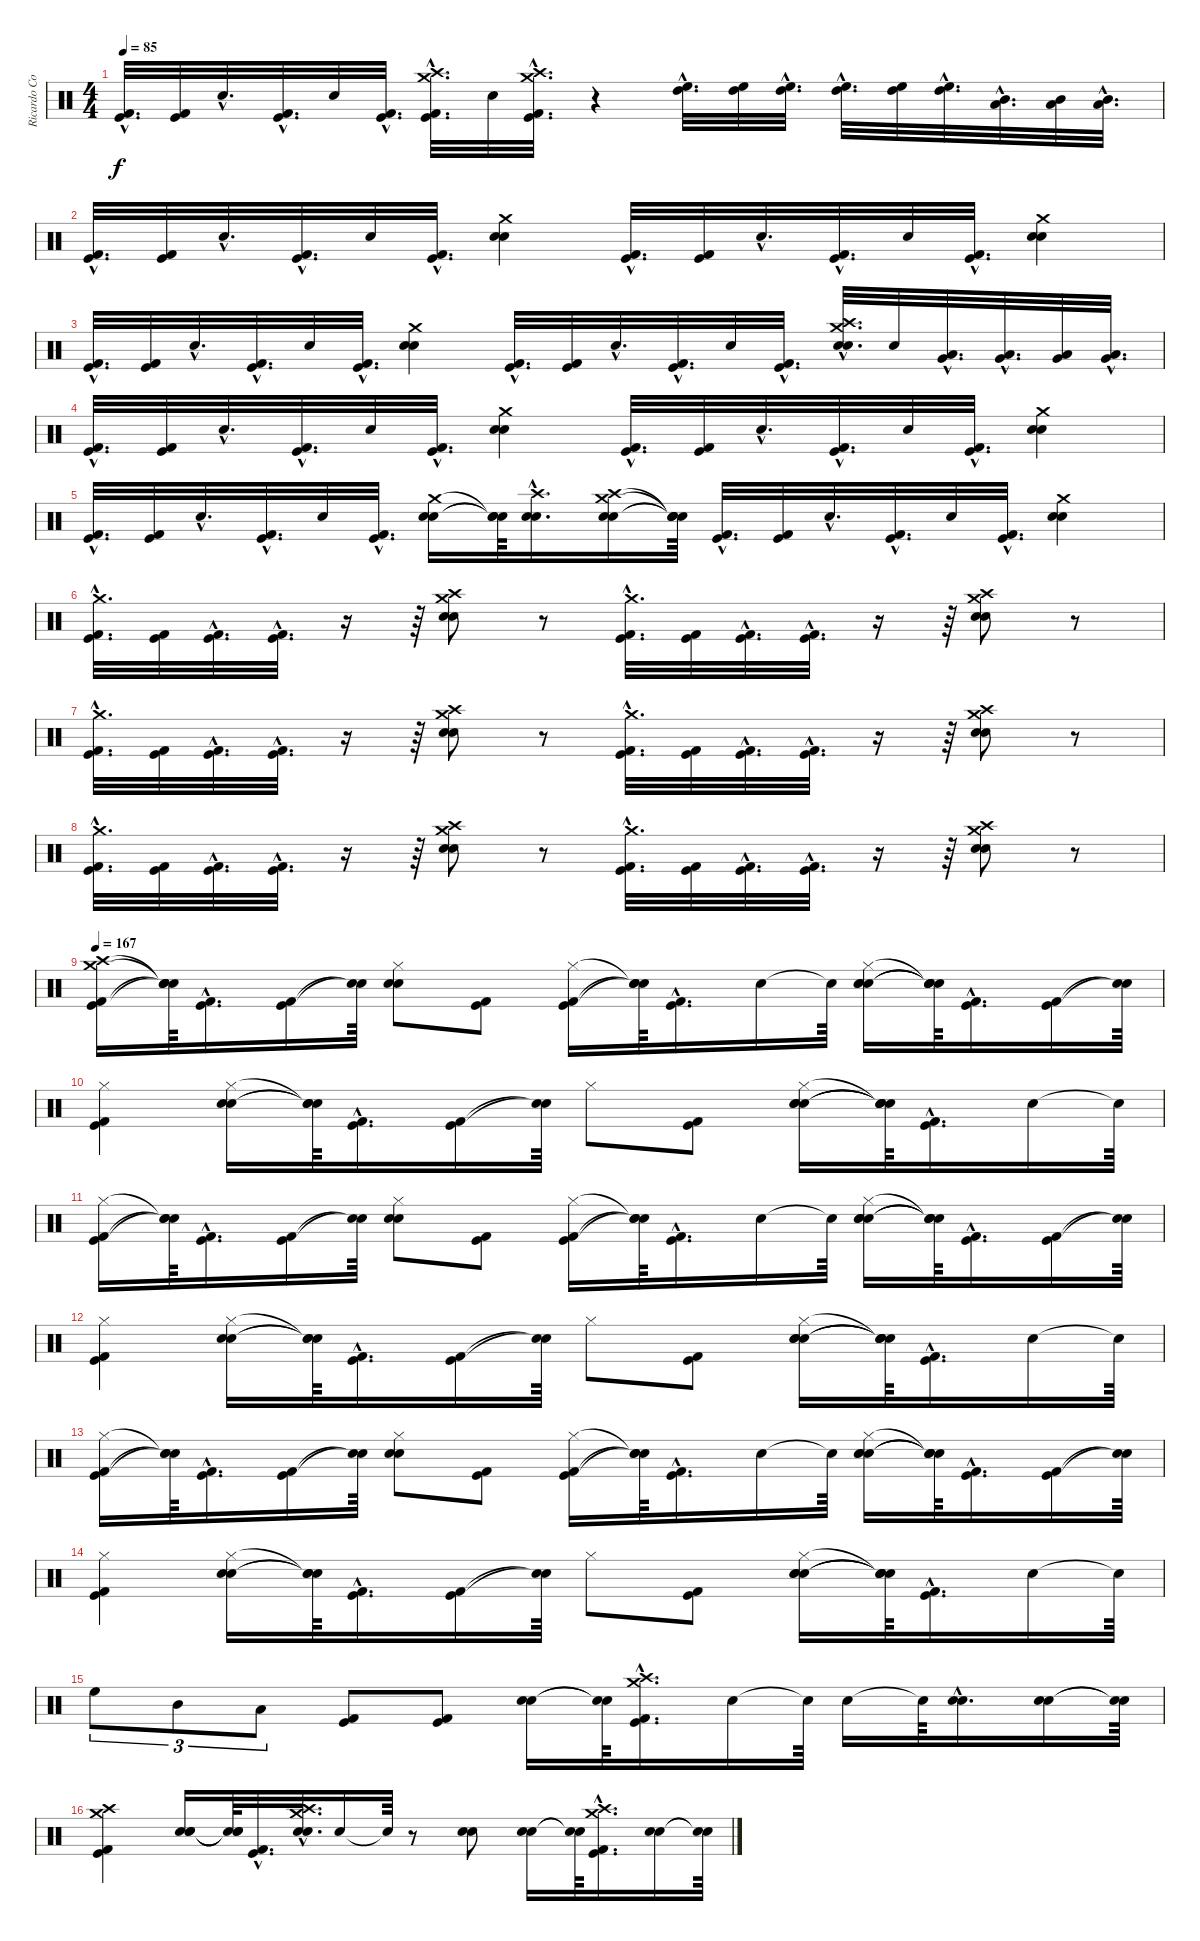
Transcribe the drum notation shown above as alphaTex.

\track ("Ricardo Confessori" "Ricardo Co") {instrument percussion}
\staff {score}
\articulation defaults
\ts (4 4)
\tempo 85
\clef neutral
\ks c
("Kick (hit) 2"{hac} "Kick (hit)"{hac}).32{d dy f} ("Kick (hit) 2" "Kick (hit)").32 "Snare (hit)"{hac}.32{d} ("Kick (hit) 2"{hac} "Kick (hit)"{hac}).32{d} "Snare (hit)".32 ("Kick (hit) 2"{hac} "Kick (hit)"{hac}).32{d} ("Crash high (hit)"{hac} "Crash medium (hit)"{hac} "Kick (hit) 2"{hac} "Kick (hit)"{hac}).32{d} "Snare (hit)".32 ("Crash high (hit)"{hac} "Crash medium (hit)"{hac} "Kick (hit) 2"{hac} "Kick (hit)"{hac}).32{d} r.4 ("High Tom (hit)"{hac} "High Floor Tom (hit)"{hac}).32{d} ("High Tom (hit)" "High Floor Tom (hit)").32 ("High Tom (hit)"{hac} "High Floor Tom (hit)"{hac}).32{d} ("High Floor Tom (hit)"{hac} "High Tom (hit)"{hac}).32{d} ("High Tom (hit)" "High Floor Tom (hit)").32 ("High Tom (hit)"{hac} "High Floor Tom (hit)"{hac}).32{d} ("Mid Tom (hit)"{hac} "Low Tom (hit)"{hac}).32{d} ("Mid Tom (hit)" "Low Tom (hit)").32 ("Mid Tom (hit)"{hac} "Low Tom (hit)"{hac}).32{d} |
("Kick (hit) 2"{hac} "Kick (hit)"{hac}).32{d} ("Kick (hit) 2" "Kick (hit)").32 "Snare (hit)"{hac}.32{d} ("Kick (hit) 2"{hac} "Kick (hit)"{hac}).32{d} "Snare (hit)".32 ("Kick (hit) 2"{hac} "Kick (hit)"{hac}).32{d} ("Crash medium (hit)" "Electric Snare (hit)" "Snare (hit) 2").4 ("Kick (hit) 2"{hac} "Kick (hit)"{hac}).32{d} ("Kick (hit) 2" "Kick (hit)").32 "Snare (hit)"{hac}.32{d} ("Kick (hit) 2"{hac} "Kick (hit)"{hac}).32{d} "Snare (hit)".32 ("Kick (hit) 2"{hac} "Kick (hit)"{hac}).32{d} ("Crash medium (hit)" "Electric Snare (hit)" "Snare (hit) 2").4 |
("Kick (hit) 2"{hac} "Kick (hit)"{hac}).32{d} ("Kick (hit) 2" "Kick (hit)").32 "Snare (hit)"{hac}.32{d} ("Kick (hit) 2"{hac} "Kick (hit)"{hac}).32{d} "Snare (hit)".32 ("Kick (hit) 2"{hac} "Kick (hit)"{hac}).32{d} ("Crash medium (hit)" "Electric Snare (hit)" "Snare (hit) 2").4 ("Kick (hit) 2"{hac} "Kick (hit)"{hac}).32{d} ("Kick (hit) 2" "Kick (hit)").32 "Snare (hit)"{hac}.32{d} ("Kick (hit) 2"{hac} "Kick (hit)"{hac}).32{d} "Snare (hit)".32 ("Kick (hit) 2"{hac} "Kick (hit)"{hac}).32{d} ("Crash high (hit)"{hac} "Crash medium (hit)"{hac} "Electric Snare (hit)"{hac} "Snare (hit) 2"{hac}).32{d} "Snare (hit)".32 ("Very Low Tom (hit)"{hac} "Low Floor Tom (hit)"{hac}).32{d} ("Very Low Tom (hit)"{hac} "Low Floor Tom (hit)"{hac}).32{d} ("Very Low Tom (hit)" "Low Floor Tom (hit)").32 ("Very Low Tom (hit)"{hac} "Low Floor Tom (hit)"{hac}).32{d} |
("Kick (hit) 2"{hac} "Kick (hit)"{hac}).32{d} ("Kick (hit) 2" "Kick (hit)").32 "Snare (hit)"{hac}.32{d} ("Kick (hit) 2"{hac} "Kick (hit)"{hac}).32{d} "Snare (hit)".32 ("Kick (hit) 2"{hac} "Kick (hit)"{hac}).32{d} ("Crash medium (hit)" "Electric Snare (hit)" "Snare (hit) 2").4 ("Kick (hit) 2"{hac} "Kick (hit)"{hac}).32{d} ("Kick (hit) 2" "Kick (hit)").32 "Snare (hit)"{hac}.32{d} ("Kick (hit) 2"{hac} "Kick (hit)"{hac}).32{d} "Snare (hit)".32 ("Kick (hit) 2"{hac} "Kick (hit)"{hac}).32{d} ("Crash medium (hit)" "Electric Snare (hit)" "Snare (hit) 2").4 |
("Kick (hit) 2"{hac} "Kick (hit)"{hac}).32{d} ("Kick (hit) 2" "Kick (hit)").32 "Snare (hit)"{hac}.32{d} ("Kick (hit) 2"{hac} "Kick (hit)"{hac}).32{d} "Snare (hit)".32 ("Kick (hit) 2"{hac} "Kick (hit)"{hac}).32{d} ("Crash medium (hit)" "Electric Snare (hit)" "Snare (hit) 2").16 ("Snare (hit)"{t} "Snare (hit)"{t} "Snare (hit)"{t}).64 ("Crash high (hit)"{hac} "Electric Snare (hit)"{hac} "Snare (hit) 2"{hac}).16{d} ("Crash high (hit)" "Crash medium (hit)" "Electric Snare (hit)" "Snare (hit) 2").16 ("Snare (hit)"{t} "Snare (hit)"{t} "Snare (hit)"{t} "Snare (hit)"{t}).64 ("Kick (hit) 2"{hac} "Kick (hit)"{hac}).32{d} ("Kick (hit) 2" "Kick (hit)").32 "Snare (hit)"{hac}.32{d} ("Kick (hit) 2"{hac} "Kick (hit)"{hac}).32{d} "Snare (hit)".32 ("Kick (hit) 2"{hac} "Kick (hit)"{hac}).32{d} ("Crash medium (hit)" "Electric Snare (hit)" "Snare (hit) 2").4 |
("Crash medium (hit)"{hac} "Kick (hit) 2"{hac} "Kick (hit)"{hac}).32{d} ("Kick (hit) 2" "Kick (hit)").32 ("Kick (hit) 2"{hac} "Kick (hit)"{hac}).32{d} ("Kick (hit) 2"{hac} "Kick (hit)"{hac}).32{d} r.16 r.64 ("Crash high (hit)" "Crash medium (hit)" "Electric Snare (hit)" "Snare (hit) 2").8 r.8 ("Crash medium (hit)"{hac} "Kick (hit) 2"{hac} "Kick (hit)"{hac}).32{d} ("Kick (hit) 2" "Kick (hit)").32 ("Kick (hit) 2"{hac} "Kick (hit)"{hac}).32{d} ("Kick (hit) 2"{hac} "Kick (hit)"{hac}).32{d} r.16 r.64 ("Crash medium (hit)" "Crash high (hit)" "Electric Snare (hit)" "Snare (hit) 2").8 r.8 |
("Crash medium (hit)"{hac} "Kick (hit) 2"{hac} "Kick (hit)"{hac}).32{d} ("Kick (hit) 2" "Kick (hit)").32 ("Kick (hit) 2"{hac} "Kick (hit)"{hac}).32{d} ("Kick (hit) 2"{hac} "Kick (hit)"{hac}).32{d} r.16 r.64 ("Crash high (hit)" "Crash medium (hit)" "Electric Snare (hit)" "Snare (hit) 2").8 r.8 ("Crash medium (hit)"{hac} "Kick (hit) 2"{hac} "Kick (hit)"{hac}).32{d} ("Kick (hit) 2" "Kick (hit)").32 ("Kick (hit) 2"{hac} "Kick (hit)"{hac}).32{d} ("Kick (hit) 2"{hac} "Kick (hit)"{hac}).32{d} r.16 r.64 ("Crash medium (hit)" "Crash high (hit)" "Electric Snare (hit)" "Snare (hit) 2").8 r.8 |
("Crash medium (hit)"{hac} "Kick (hit) 2"{hac} "Kick (hit)"{hac}).32{d} ("Kick (hit) 2" "Kick (hit)").32 ("Kick (hit) 2"{hac} "Kick (hit)"{hac}).32{d} ("Kick (hit) 2"{hac} "Kick (hit)"{hac}).32{d} r.16 r.64 ("Crash high (hit)" "Crash medium (hit)" "Electric Snare (hit)" "Snare (hit) 2").8 r.8 ("Crash medium (hit)"{hac} "Kick (hit) 2"{hac} "Kick (hit)"{hac}).32{d} ("Kick (hit) 2" "Kick (hit)").32 ("Kick (hit) 2"{hac} "Kick (hit)"{hac}).32{d} ("Kick (hit) 2"{hac} "Kick (hit)"{hac}).32{d} r.16 r.64 ("Crash medium (hit)" "Crash high (hit)" "Electric Snare (hit)" "Snare (hit) 2").8 r.8 |
\tempo 167
("Crash high (hit)" "Crash medium (hit)" "Kick (hit) 2" "Kick (hit)").16 ("Snare (hit)"{t} "Snare (hit)"{t} "Snare (hit)"{t} "Snare (hit)"{t}).64 ("Kick (hit) 2"{hac} "Kick (hit)"{hac}).16{d} ("Kick (hit) 2" "Kick (hit)").16 ("Snare (hit)"{t} "Snare (hit)"{t}).64 ("Hi-Hat (closed)" "Electric Snare (hit)" "Snare (hit) 2").8 ("Kick (hit) 2" "Kick (hit)").8 ("Hi-Hat (closed)" "Kick (hit) 2" "Kick (hit)").16 ("Snare (hit)"{t} "Snare (hit)"{t} "Snare (hit)"{t}).64 ("Kick (hit) 2"{hac} "Kick (hit)"{hac}).16{d} "Snare (hit)".16 "Snare (hit)"{t}.64 ("Electric Snare (hit)" "Snare (hit) 2" "Hi-Hat (closed)" "Snare (hit)").16 ("Snare (hit)"{t} "Snare (hit)"{t} "Snare (hit)"{t} "Snare (hit)"{t}).64 ("Kick (hit) 2"{hac} "Kick (hit)"{hac}).16{d} ("Kick (hit) 2" "Kick (hit)").16 ("Snare (hit)"{t} "Snare (hit)"{t}).64 |
("Hi-Hat (closed)" "Kick (hit) 2" "Kick (hit)").4 ("Hi-Hat (closed)" "Snare (hit) 2" "Electric Snare (hit)").16 ("Snare (hit)"{t} "Snare (hit)"{t} "Snare (hit)"{t}).64 ("Kick (hit) 2"{hac} "Kick (hit)"{hac}).16{d} ("Kick (hit) 2" "Kick (hit)").16 ("Snare (hit)"{t} "Snare (hit)"{t}).64 "Hi-Hat (closed)".8 ("Kick (hit) 2" "Kick (hit)").8 ("Hi-Hat (closed)" "Electric Snare (hit)" "Snare (hit) 2" "Snare (hit)").16 ("Snare (hit)"{t} "Snare (hit)"{t} "Snare (hit)"{t} "Snare (hit)"{t}).64 ("Kick (hit) 2"{hac} "Kick (hit)"{hac}).16{d} "Snare (hit)".16 "Snare (hit)"{t}.64 |
("Hi-Hat (closed)" "Kick (hit) 2" "Kick (hit)").16 ("Snare (hit)"{t} "Snare (hit)"{t} "Snare (hit)"{t}).64 ("Kick (hit) 2"{hac} "Kick (hit)"{hac}).16{d} ("Kick (hit) 2" "Kick (hit)").16 ("Snare (hit)"{t} "Snare (hit)"{t}).64 ("Electric Snare (hit)" "Snare (hit) 2" "Hi-Hat (closed)").8 ("Kick (hit) 2" "Kick (hit)").8 ("Hi-Hat (closed)" "Kick (hit) 2" "Kick (hit)").16 ("Snare (hit)"{t} "Snare (hit)"{t} "Snare (hit)"{t}).64 ("Kick (hit) 2"{hac} "Kick (hit)"{hac}).16{d} "Snare (hit)".16 "Snare (hit)"{t}.64 ("Electric Snare (hit)" "Snare (hit) 2" "Hi-Hat (closed)" "Snare (hit)").16 ("Snare (hit)"{t} "Snare (hit)"{t} "Snare (hit)"{t} "Snare (hit)"{t}).64 ("Kick (hit) 2"{hac} "Kick (hit)"{hac}).16{d} ("Kick (hit) 2" "Kick (hit)").16 ("Snare (hit)"{t} "Snare (hit)"{t}).64 |
("Hi-Hat (closed)" "Kick (hit) 2" "Kick (hit)").4 ("Electric Snare (hit)" "Snare (hit) 2" "Hi-Hat (closed)").16 ("Snare (hit)"{t} "Snare (hit)"{t} "Snare (hit)"{t}).64 ("Kick (hit) 2"{hac} "Kick (hit)"{hac}).16{d} ("Kick (hit) 2" "Kick (hit)").16 ("Snare (hit)"{t} "Snare (hit)"{t}).64 "Hi-Hat (closed)".8 ("Kick (hit) 2" "Kick (hit)").8 ("Electric Snare (hit)" "Snare (hit) 2" "Hi-Hat (closed)" "Snare (hit)").16 ("Snare (hit)"{t} "Snare (hit)"{t} "Snare (hit)"{t} "Snare (hit)"{t}).64 ("Kick (hit) 2"{hac} "Kick (hit)"{hac}).16{d} "Snare (hit)".16 "Snare (hit)"{t}.64 |
("Hi-Hat (closed)" "Kick (hit) 2" "Kick (hit)").16 ("Snare (hit)"{t} "Snare (hit)"{t} "Snare (hit)"{t}).64 ("Kick (hit) 2"{hac} "Kick (hit)"{hac}).16{d} ("Kick (hit) 2" "Kick (hit)").16 ("Snare (hit)"{t} "Snare (hit)"{t}).64 ("Electric Snare (hit)" "Snare (hit) 2" "Hi-Hat (closed)").8 ("Kick (hit) 2" "Kick (hit)").8 ("Hi-Hat (closed)" "Kick (hit) 2" "Kick (hit)").16 ("Snare (hit)"{t} "Snare (hit)"{t} "Snare (hit)"{t}).64 ("Kick (hit) 2"{hac} "Kick (hit)"{hac}).16{d} "Snare (hit)".16 "Snare (hit)"{t}.64 ("Electric Snare (hit)" "Snare (hit) 2" "Hi-Hat (closed)" "Snare (hit)").16 ("Snare (hit)"{t} "Snare (hit)"{t} "Snare (hit)"{t} "Snare (hit)"{t}).64 ("Kick (hit) 2"{hac} "Kick (hit)"{hac}).16{d} ("Kick (hit) 2" "Kick (hit)").16 ("Snare (hit)"{t} "Snare (hit)"{t}).64 |
("Hi-Hat (closed)" "Kick (hit) 2" "Kick (hit)").4 ("Electric Snare (hit)" "Snare (hit) 2" "Hi-Hat (closed)").16 ("Snare (hit)"{t} "Snare (hit)"{t} "Snare (hit)"{t}).64 ("Kick (hit) 2"{hac} "Kick (hit)"{hac}).16{d} ("Kick (hit) 2" "Kick (hit)").16 ("Snare (hit)"{t} "Snare (hit)"{t}).64 "Hi-Hat (closed)".8 ("Kick (hit) 2" "Kick (hit)").8 ("Electric Snare (hit)" "Snare (hit) 2" "Hi-Hat (closed)" "Snare (hit)").16 ("Snare (hit)"{t} "Snare (hit)"{t} "Snare (hit)"{t} "Snare (hit)"{t}).64 ("Kick (hit) 2"{hac} "Kick (hit)"{hac}).16{d} "Snare (hit)".16 "Snare (hit)"{t}.64 |
"High Floor Tom (hit)".8{tu (3 2)} "Mid Tom (hit)".8{tu (3 2)} "Low Tom (hit)".8{tu (3 2)} ("Kick (hit) 2" "Kick (hit)").8 ("Kick (hit) 2" "Kick (hit)").8 ("Electric Snare (hit)" "Snare (hit) 2").16 ("Snare (hit)"{t} "Snare (hit)"{t}).64 ("Crash high (hit)"{hac} "Crash medium (hit)"{hac} "Kick (hit) 2"{hac} "Kick (hit)"{hac}).16{d} "Snare (hit)".16 "Snare (hit)"{t}.64 "Snare (hit)".16 "Snare (hit)"{t}.64 ("Electric Snare (hit)"{hac} "Snare (hit) 2"{hac}).16{d} ("Electric Snare (hit)" "Snare (hit) 2").16 ("Snare (hit)"{t} "Snare (hit)"{t}).64 |
("Crash medium (hit)" "Crash high (hit)" "Kick (hit) 2" "Kick (hit)").4 ("Snare (hit)" "Electric Snare (hit)" "Snare (hit) 2").16 ("Snare (hit)"{t} "Snare (hit)"{t} "Snare (hit)"{t}).64 ("Kick (hit) 2"{hac} "Kick (hit)"{hac}).32{d} ("Crash high (hit)"{hac} "Crash medium (hit)"{hac} "Electric Snare (hit)"{hac} "Snare (hit) 2"{hac}).32{d} "Snare (hit)".16 "Snare (hit)"{t}.64 r.8 ("Electric Snare (hit)" "Snare (hit) 2").8 ("Electric Snare (hit)" "Snare (hit) 2").16 ("Snare (hit)"{t} "Snare (hit)"{t}).64 ("Crash high (hit)"{hac} "Crash medium (hit)"{hac} "Kick (hit) 2"{hac} "Kick (hit)"{hac}).16{d} ("Snare (hit)" "Snare (hit)").16 ("Snare (hit)"{t} "Snare (hit)"{t}).64
